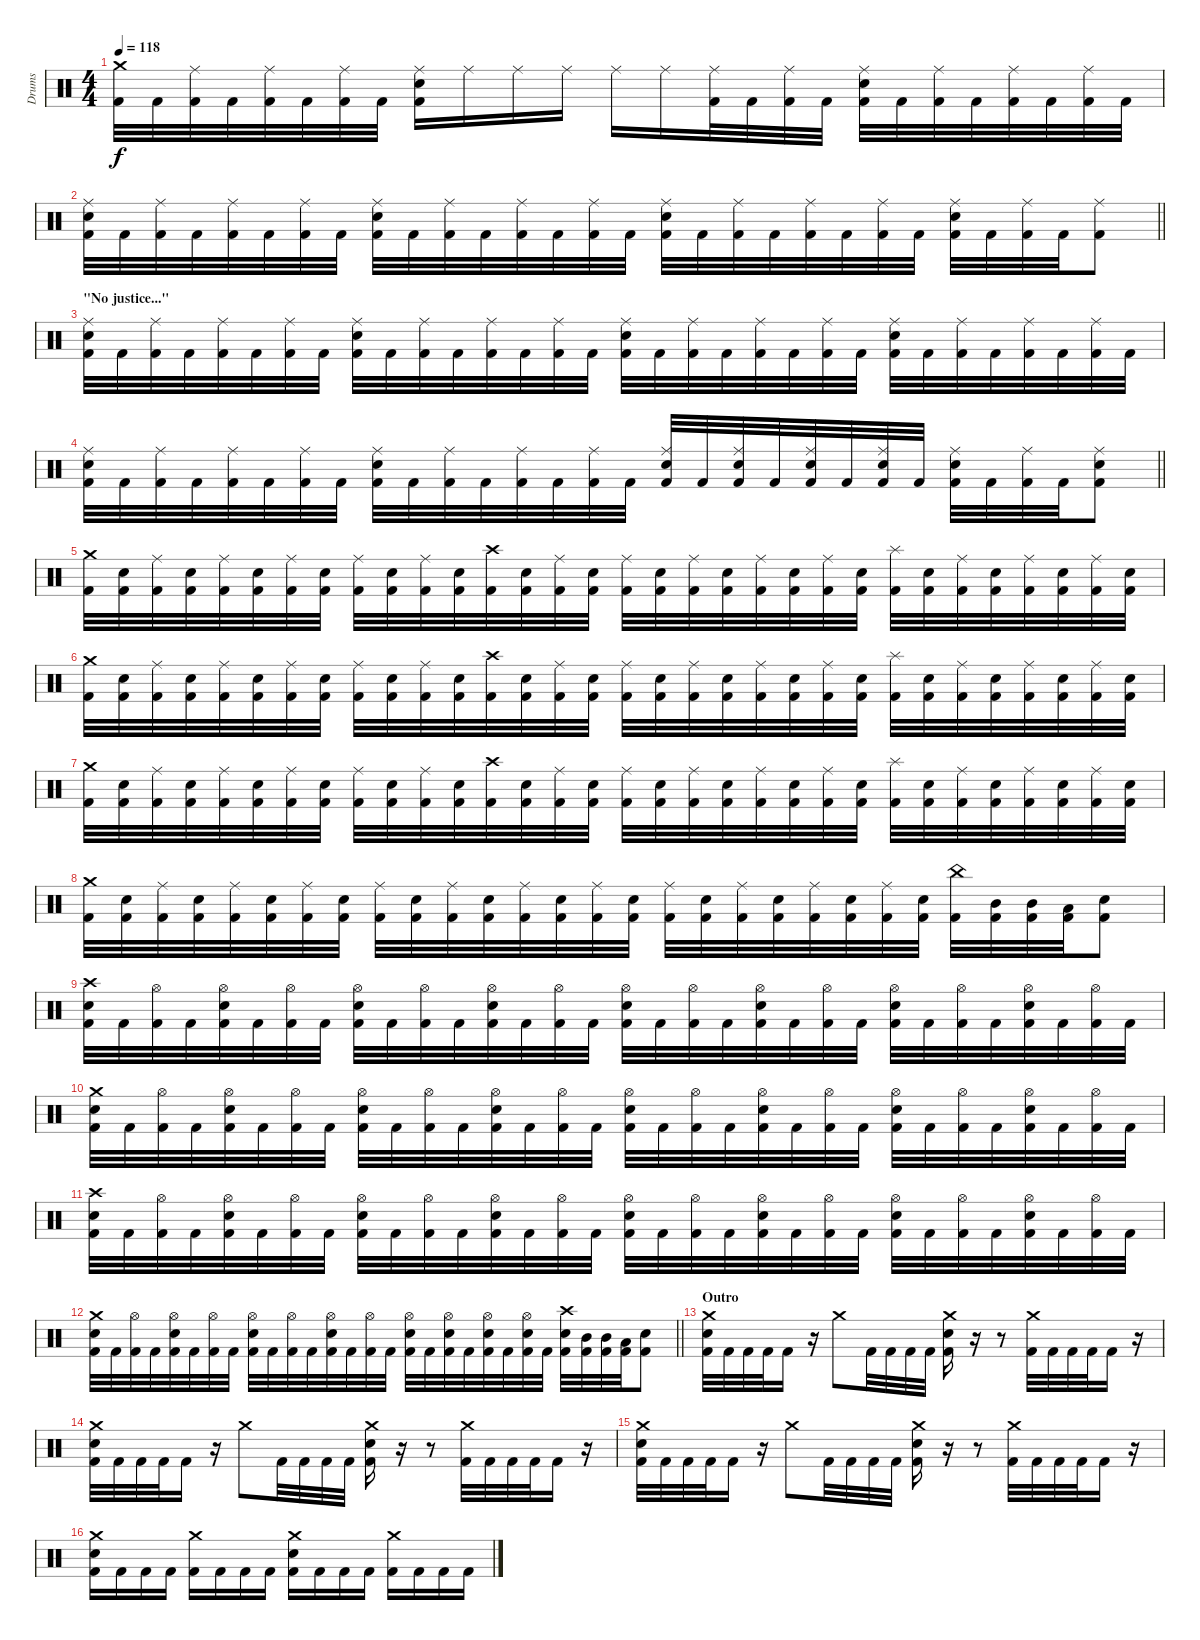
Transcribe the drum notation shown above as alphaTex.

\track ("Drums" "Drums") {instrument percussion}
\staff {score}
\articulation defaults
\ts (4 4)
\tempo 118
\clef neutral
\ks c
("Crash medium (hit)" "Kick (hit) 2").32{dy f} "Kick (hit) 2".32 ("Ride (middle)" "Kick (hit) 2").32 "Kick (hit) 2".32 ("Ride (middle)" "Kick (hit) 2").32 "Kick (hit) 2".32 ("Ride (middle)" "Kick (hit) 2").32 "Kick (hit) 2".32 ("Ride (middle)" "Electric Snare (hit)" "Kick (hit) 2").16 "Ride (middle)".16 "Ride (middle)".16 "Ride (middle)".16 "Ride (middle)".16 "Ride (middle)".16 ("Ride (middle)" "Kick (hit) 2").32 "Kick (hit) 2".32 ("Ride (middle)" "Kick (hit) 2").32 "Kick (hit) 2".32 ("Ride (middle)" "Electric Snare (hit)" "Kick (hit) 2").32 "Kick (hit) 2".32 ("Ride (middle)" "Kick (hit) 2").32 "Kick (hit) 2".32 ("Ride (middle)" "Kick (hit) 2").32 "Kick (hit) 2".32 ("Ride (middle)" "Kick (hit) 2").32 "Kick (hit) 2".32 |
\barLineRight lightlight
("Ride (middle)" "Electric Snare (hit)" "Kick (hit) 2").32 "Kick (hit) 2".32 ("Ride (middle)" "Kick (hit) 2").32 "Kick (hit) 2".32 ("Ride (middle)" "Kick (hit) 2").32 "Kick (hit) 2".32 ("Ride (middle)" "Kick (hit) 2").32 "Kick (hit) 2".32 ("Ride (middle)" "Electric Snare (hit)" "Kick (hit) 2").32 "Kick (hit) 2".32 ("Ride (middle)" "Kick (hit) 2").32 "Kick (hit) 2".32 ("Ride (middle)" "Kick (hit) 2").32 "Kick (hit) 2".32 ("Ride (middle)" "Kick (hit) 2").32 "Kick (hit) 2".32 ("Ride (middle)" "Electric Snare (hit)" "Kick (hit) 2").32 "Kick (hit) 2".32 ("Ride (middle)" "Kick (hit) 2").32 "Kick (hit) 2".32 ("Ride (middle)" "Kick (hit) 2").32 "Kick (hit) 2".32 ("Ride (middle)" "Kick (hit) 2").32 "Kick (hit) 2".32 ("Ride (middle)" "Electric Snare (hit)" "Kick (hit) 2").32 "Kick (hit) 2".32 ("Ride (middle)" "Kick (hit) 2").32 "Kick (hit) 2".32 ("Ride (middle)" "Kick (hit) 2").8 |
\section ("" "\"No justice...\"")
("Ride (middle)" "Electric Snare (hit)" "Kick (hit) 2").32 "Kick (hit) 2".32 ("Ride (middle)" "Kick (hit) 2").32 "Kick (hit) 2".32 ("Ride (middle)" "Kick (hit) 2").32 "Kick (hit) 2".32 ("Ride (middle)" "Kick (hit) 2").32 "Kick (hit) 2".32 ("Ride (middle)" "Electric Snare (hit)" "Kick (hit) 2").32 "Kick (hit) 2".32 ("Ride (middle)" "Kick (hit) 2").32 "Kick (hit) 2".32 ("Ride (middle)" "Kick (hit) 2").32 "Kick (hit) 2".32 ("Ride (middle)" "Kick (hit) 2").32 "Kick (hit) 2".32 ("Ride (middle)" "Electric Snare (hit)" "Kick (hit) 2").32 "Kick (hit) 2".32 ("Ride (middle)" "Kick (hit) 2").32 "Kick (hit) 2".32 ("Ride (middle)" "Kick (hit) 2").32 "Kick (hit) 2".32 ("Ride (middle)" "Kick (hit) 2").32 "Kick (hit) 2".32 ("Ride (middle)" "Electric Snare (hit)" "Kick (hit) 2").32 "Kick (hit) 2".32 ("Ride (middle)" "Kick (hit) 2").32 "Kick (hit) 2".32 ("Ride (middle)" "Kick (hit) 2").32 "Kick (hit) 2".32 ("Ride (middle)" "Kick (hit) 2").32 "Kick (hit) 2".32 |
\barLineRight lightlight
("Ride (middle)" "Electric Snare (hit)" "Kick (hit) 2").32 "Kick (hit) 2".32 ("Ride (middle)" "Kick (hit) 2").32 "Kick (hit) 2".32 ("Ride (middle)" "Kick (hit) 2").32 "Kick (hit) 2".32 ("Ride (middle)" "Kick (hit) 2").32 "Kick (hit) 2".32 ("Ride (middle)" "Electric Snare (hit)" "Kick (hit) 2").32 "Kick (hit) 2".32 ("Ride (middle)" "Kick (hit) 2").32 "Kick (hit) 2".32 ("Ride (middle)" "Kick (hit) 2").32 "Kick (hit) 2".32 ("Ride (middle)" "Kick (hit) 2").32 "Kick (hit) 2".32 ("Ride (middle)" "Electric Snare (hit)" "Kick (hit) 2").32 "Kick (hit) 2".32 ("Ride (middle)" "Electric Snare (hit)" "Kick (hit) 2").32 "Kick (hit) 2".32 ("Ride (middle)" "Electric Snare (hit)" "Kick (hit) 2").32 "Kick (hit) 2".32 ("Ride (middle)" "Electric Snare (hit)" "Kick (hit) 2").32 "Kick (hit) 2".32 ("Ride (middle)" "Electric Snare (hit)" "Kick (hit) 2").32 "Kick (hit) 2".32 ("Ride (middle)" "Kick (hit) 2").32 "Kick (hit) 2".32 ("Ride (middle)" "Electric Snare (hit)" "Kick (hit) 2").8 |
\section ("" "")
("Crash medium (hit)" "Kick (hit) 2").32 ("Electric Snare (hit)" "Kick (hit) 2").32 ("Ride (middle)" "Kick (hit) 2").32 ("Electric Snare (hit)" "Kick (hit) 2").32 ("Ride (middle)" "Kick (hit) 2").32 ("Electric Snare (hit)" "Kick (hit) 2").32 ("Ride (middle)" "Kick (hit) 2").32 ("Electric Snare (hit)" "Kick (hit) 2").32 ("Ride (middle)" "Kick (hit) 2").32 ("Electric Snare (hit)" "Kick (hit) 2").32 ("Ride (middle)" "Kick (hit) 2").32 ("Electric Snare (hit)" "Kick (hit) 2").32 ("Crash high (hit)" "Kick (hit) 2").32 ("Electric Snare (hit)" "Kick (hit) 2").32 ("Ride (middle)" "Kick (hit) 2").32 ("Electric Snare (hit)" "Kick (hit) 2").32 ("Ride (middle)" "Kick (hit) 2").32 ("Electric Snare (hit)" "Kick (hit) 2").32 ("Ride (middle)" "Kick (hit) 2").32 ("Electric Snare (hit)" "Kick (hit) 2").32 ("Ride (middle)" "Kick (hit) 2").32 ("Electric Snare (hit)" "Kick (hit) 2").32 ("Ride (middle)" "Kick (hit) 2").32 ("Electric Snare (hit)" "Kick (hit) 2").32 ("Splash (hit)" "Kick (hit) 2").32 ("Electric Snare (hit)" "Kick (hit) 2").32 ("Ride (middle)" "Kick (hit) 2").32 ("Electric Snare (hit)" "Kick (hit) 2").32 ("Ride (middle)" "Kick (hit) 2").32 ("Electric Snare (hit)" "Kick (hit) 2").32 ("Ride (middle)" "Kick (hit) 2").32 ("Electric Snare (hit)" "Kick (hit) 2").32 |
("Crash medium (hit)" "Kick (hit) 2").32 ("Electric Snare (hit)" "Kick (hit) 2").32 ("Ride (middle)" "Kick (hit) 2").32 ("Electric Snare (hit)" "Kick (hit) 2").32 ("Ride (middle)" "Kick (hit) 2").32 ("Electric Snare (hit)" "Kick (hit) 2").32 ("Ride (middle)" "Kick (hit) 2").32 ("Electric Snare (hit)" "Kick (hit) 2").32 ("Ride (middle)" "Kick (hit) 2").32 ("Electric Snare (hit)" "Kick (hit) 2").32 ("Ride (middle)" "Kick (hit) 2").32 ("Electric Snare (hit)" "Kick (hit) 2").32 ("Crash high (hit)" "Kick (hit) 2").32 ("Electric Snare (hit)" "Kick (hit) 2").32 ("Ride (middle)" "Kick (hit) 2").32 ("Electric Snare (hit)" "Kick (hit) 2").32 ("Ride (middle)" "Kick (hit) 2").32 ("Electric Snare (hit)" "Kick (hit) 2").32 ("Ride (middle)" "Kick (hit) 2").32 ("Electric Snare (hit)" "Kick (hit) 2").32 ("Ride (middle)" "Kick (hit) 2").32 ("Electric Snare (hit)" "Kick (hit) 2").32 ("Ride (middle)" "Kick (hit) 2").32 ("Electric Snare (hit)" "Kick (hit) 2").32 ("Splash (hit)" "Kick (hit) 2").32 ("Electric Snare (hit)" "Kick (hit) 2").32 ("Ride (middle)" "Kick (hit) 2").32 ("Electric Snare (hit)" "Kick (hit) 2").32 ("Ride (middle)" "Kick (hit) 2").32 ("Electric Snare (hit)" "Kick (hit) 2").32 ("Ride (middle)" "Kick (hit) 2").32 ("Electric Snare (hit)" "Kick (hit) 2").32 |
("Crash medium (hit)" "Kick (hit) 2").32 ("Electric Snare (hit)" "Kick (hit) 2").32 ("Ride (middle)" "Kick (hit) 2").32 ("Electric Snare (hit)" "Kick (hit) 2").32 ("Ride (middle)" "Kick (hit) 2").32 ("Electric Snare (hit)" "Kick (hit) 2").32 ("Ride (middle)" "Kick (hit) 2").32 ("Electric Snare (hit)" "Kick (hit) 2").32 ("Ride (middle)" "Kick (hit) 2").32 ("Electric Snare (hit)" "Kick (hit) 2").32 ("Ride (middle)" "Kick (hit) 2").32 ("Electric Snare (hit)" "Kick (hit) 2").32 ("Crash high (hit)" "Kick (hit) 2").32 ("Electric Snare (hit)" "Kick (hit) 2").32 ("Ride (middle)" "Kick (hit) 2").32 ("Electric Snare (hit)" "Kick (hit) 2").32 ("Ride (middle)" "Kick (hit) 2").32 ("Electric Snare (hit)" "Kick (hit) 2").32 ("Ride (middle)" "Kick (hit) 2").32 ("Electric Snare (hit)" "Kick (hit) 2").32 ("Ride (middle)" "Kick (hit) 2").32 ("Electric Snare (hit)" "Kick (hit) 2").32 ("Ride (middle)" "Kick (hit) 2").32 ("Electric Snare (hit)" "Kick (hit) 2").32 ("Splash (hit)" "Kick (hit) 2").32 ("Electric Snare (hit)" "Kick (hit) 2").32 ("Ride (middle)" "Kick (hit) 2").32 ("Electric Snare (hit)" "Kick (hit) 2").32 ("Ride (middle)" "Kick (hit) 2").32 ("Electric Snare (hit)" "Kick (hit) 2").32 ("Ride (middle)" "Kick (hit) 2").32 ("Electric Snare (hit)" "Kick (hit) 2").32 |
("Crash medium (hit)" "Kick (hit) 2").32 ("Electric Snare (hit)" "Kick (hit) 2").32 ("Ride (middle)" "Kick (hit) 2").32 ("Electric Snare (hit)" "Kick (hit) 2").32 ("Ride (middle)" "Kick (hit) 2").32 ("Electric Snare (hit)" "Kick (hit) 2").32 ("Ride (middle)" "Kick (hit) 2").32 ("Electric Snare (hit)" "Kick (hit) 2").32 ("Ride (middle)" "Kick (hit) 2").32 ("Electric Snare (hit)" "Kick (hit) 2").32 ("Ride (middle)" "Kick (hit) 2").32 ("Electric Snare (hit)" "Kick (hit) 2").32 ("Ride (middle)" "Kick (hit) 2").32 ("Electric Snare (hit)" "Kick (hit) 2").32 ("Ride (middle)" "Kick (hit) 2").32 ("Electric Snare (hit)" "Kick (hit) 2").32 ("Ride (middle)" "Kick (hit) 2").32 ("Electric Snare (hit)" "Kick (hit) 2").32 ("Ride (middle)" "Kick (hit) 2").32 ("Electric Snare (hit)" "Kick (hit) 2").32 ("Ride (middle)" "Kick (hit) 2").32 ("Electric Snare (hit)" "Kick (hit) 2").32 ("Ride (middle)" "Kick (hit) 2").32 ("Electric Snare (hit)" "Kick (hit) 2").32 ("China (hit)" "Kick (hit) 2").32 ("Mid Tom (hit)" "Kick (hit) 2").32 ("Mid Tom (hit)" "Kick (hit) 2").32 ("Low Tom (hit)" "Kick (hit) 2").32 ("Electric Snare (hit)" "Kick (hit) 2").8 |
("Crash high (hit)" "Electric Snare (hit)" "Kick (hit) 2").32 "Kick (hit) 2".32 ("Hi-Hat (open)" "Kick (hit) 2").32 "Kick (hit) 2".32 ("Hi-Hat (open)" "Electric Snare (hit)" "Kick (hit) 2").32 "Kick (hit) 2".32 ("Hi-Hat (open)" "Kick (hit) 2").32 "Kick (hit) 2".32 ("Hi-Hat (open)" "Electric Snare (hit)" "Kick (hit) 2").32 "Kick (hit) 2".32 ("Hi-Hat (open)" "Kick (hit) 2").32 "Kick (hit) 2".32 ("Hi-Hat (open)" "Electric Snare (hit)" "Kick (hit) 2").32 "Kick (hit) 2".32 ("Hi-Hat (open)" "Kick (hit) 2").32 "Kick (hit) 2".32 ("Hi-Hat (open)" "Electric Snare (hit)" "Kick (hit) 2").32 "Kick (hit) 2".32 ("Hi-Hat (open)" "Kick (hit) 2").32 "Kick (hit) 2".32 ("Hi-Hat (open)" "Electric Snare (hit)" "Kick (hit) 2").32 "Kick (hit) 2".32 ("Hi-Hat (open)" "Kick (hit) 2").32 "Kick (hit) 2".32 ("Hi-Hat (open)" "Electric Snare (hit)" "Kick (hit) 2").32 "Kick (hit) 2".32 ("Hi-Hat (open)" "Kick (hit) 2").32 "Kick (hit) 2".32 ("Hi-Hat (open)" "Electric Snare (hit)" "Kick (hit) 2").32 "Kick (hit) 2".32 ("Hi-Hat (open)" "Kick (hit) 2").32 "Kick (hit) 2".32 |
("Crash medium (hit)" "Electric Snare (hit)" "Kick (hit) 2").32 "Kick (hit) 2".32 ("Hi-Hat (open)" "Kick (hit) 2").32 "Kick (hit) 2".32 ("Hi-Hat (open)" "Electric Snare (hit)" "Kick (hit) 2").32 "Kick (hit) 2".32 ("Hi-Hat (open)" "Kick (hit) 2").32 "Kick (hit) 2".32 ("Hi-Hat (open)" "Electric Snare (hit)" "Kick (hit) 2").32 "Kick (hit) 2".32 ("Hi-Hat (open)" "Kick (hit) 2").32 "Kick (hit) 2".32 ("Hi-Hat (open)" "Electric Snare (hit)" "Kick (hit) 2").32 "Kick (hit) 2".32 ("Hi-Hat (open)" "Kick (hit) 2").32 "Kick (hit) 2".32 ("Hi-Hat (open)" "Electric Snare (hit)" "Kick (hit) 2").32 "Kick (hit) 2".32 ("Hi-Hat (open)" "Kick (hit) 2").32 "Kick (hit) 2".32 ("Hi-Hat (open)" "Electric Snare (hit)" "Kick (hit) 2").32 "Kick (hit) 2".32 ("Hi-Hat (open)" "Kick (hit) 2").32 "Kick (hit) 2".32 ("Hi-Hat (open)" "Electric Snare (hit)" "Kick (hit) 2").32 "Kick (hit) 2".32 ("Hi-Hat (open)" "Kick (hit) 2").32 "Kick (hit) 2".32 ("Hi-Hat (open)" "Electric Snare (hit)" "Kick (hit) 2").32 "Kick (hit) 2".32 ("Hi-Hat (open)" "Kick (hit) 2").32 "Kick (hit) 2".32 |
("Crash high (hit)" "Electric Snare (hit)" "Kick (hit) 2").32 "Kick (hit) 2".32 ("Hi-Hat (open)" "Kick (hit) 2").32 "Kick (hit) 2".32 ("Hi-Hat (open)" "Electric Snare (hit)" "Kick (hit) 2").32 "Kick (hit) 2".32 ("Hi-Hat (open)" "Kick (hit) 2").32 "Kick (hit) 2".32 ("Hi-Hat (open)" "Electric Snare (hit)" "Kick (hit) 2").32 "Kick (hit) 2".32 ("Hi-Hat (open)" "Kick (hit) 2").32 "Kick (hit) 2".32 ("Hi-Hat (open)" "Electric Snare (hit)" "Kick (hit) 2").32 "Kick (hit) 2".32 ("Hi-Hat (open)" "Kick (hit) 2").32 "Kick (hit) 2".32 ("Hi-Hat (open)" "Electric Snare (hit)" "Kick (hit) 2").32 "Kick (hit) 2".32 ("Hi-Hat (open)" "Kick (hit) 2").32 "Kick (hit) 2".32 ("Hi-Hat (open)" "Electric Snare (hit)" "Kick (hit) 2").32 "Kick (hit) 2".32 ("Hi-Hat (open)" "Kick (hit) 2").32 "Kick (hit) 2".32 ("Hi-Hat (open)" "Electric Snare (hit)" "Kick (hit) 2").32 "Kick (hit) 2".32 ("Hi-Hat (open)" "Kick (hit) 2").32 "Kick (hit) 2".32 ("Hi-Hat (open)" "Electric Snare (hit)" "Kick (hit) 2").32 "Kick (hit) 2".32 ("Hi-Hat (open)" "Kick (hit) 2").32 "Kick (hit) 2".32 |
\barLineRight lightlight
("Crash medium (hit)" "Electric Snare (hit)" "Kick (hit) 2").32 "Kick (hit) 2".32 ("Hi-Hat (open)" "Kick (hit) 2").32 "Kick (hit) 2".32 ("Hi-Hat (open)" "Electric Snare (hit)" "Kick (hit) 2").32 "Kick (hit) 2".32 ("Hi-Hat (open)" "Kick (hit) 2").32 "Kick (hit) 2".32 ("Hi-Hat (open)" "Electric Snare (hit)" "Kick (hit) 2").32 "Kick (hit) 2".32 ("Hi-Hat (open)" "Kick (hit) 2").32 "Kick (hit) 2".32 ("Hi-Hat (open)" "Electric Snare (hit)" "Kick (hit) 2").32 "Kick (hit) 2".32 ("Hi-Hat (open)" "Kick (hit) 2").32 "Kick (hit) 2".32 ("Hi-Hat (open)" "Electric Snare (hit)" "Kick (hit) 2").32 "Kick (hit) 2".32 ("Hi-Hat (open)" "Electric Snare (hit)" "Kick (hit) 2").32 "Kick (hit) 2".32 ("Hi-Hat (open)" "Electric Snare (hit)" "Kick (hit) 2").32 "Kick (hit) 2".32 ("Hi-Hat (open)" "Electric Snare (hit)" "Kick (hit) 2").32 "Kick (hit) 2".32 ("Crash high (hit)" "Electric Snare (hit)" "Kick (hit) 2").32 ("Mid Tom (hit)" "Kick (hit) 2").32 ("Mid Tom (hit)" "Kick (hit) 2").32 ("Low Tom (hit)" "Kick (hit) 2").32 ("Electric Snare (hit)" "Kick (hit) 2").8 |
\section ("" "Outro")
("Crash medium (hit)" "Electric Snare (hit)" "Kick (hit) 2").32 "Kick (hit) 2".32 "Kick (hit) 2".32 "Kick (hit) 2".32 "Kick (hit) 2".16 r.16 "Crash medium (hit)".8 "Kick (hit) 2".32 "Kick (hit) 2".32 "Kick (hit) 2".32 "Kick (hit) 2".32 ("Crash medium (hit)" "Electric Snare (hit)" "Kick (hit) 2").16 r.16 r.8 ("Crash medium (hit)" "Kick (hit) 2").32 "Kick (hit) 2".32 "Kick (hit) 2".32 "Kick (hit) 2".32 "Kick (hit) 2".16 r.16 |
("Crash medium (hit)" "Electric Snare (hit)" "Kick (hit) 2").32 "Kick (hit) 2".32 "Kick (hit) 2".32 "Kick (hit) 2".32 "Kick (hit) 2".16 r.16 "Crash medium (hit)".8 "Kick (hit) 2".32 "Kick (hit) 2".32 "Kick (hit) 2".32 "Kick (hit) 2".32 ("Crash medium (hit)" "Electric Snare (hit)" "Kick (hit) 2").16 r.16 r.8 ("Crash medium (hit)" "Kick (hit) 2").32 "Kick (hit) 2".32 "Kick (hit) 2".32 "Kick (hit) 2".32 "Kick (hit) 2".16 r.16 |
("Crash medium (hit)" "Electric Snare (hit)" "Kick (hit) 2").32 "Kick (hit) 2".32 "Kick (hit) 2".32 "Kick (hit) 2".32 "Kick (hit) 2".16 r.16 "Crash medium (hit)".8 "Kick (hit) 2".32 "Kick (hit) 2".32 "Kick (hit) 2".32 "Kick (hit) 2".32 ("Crash medium (hit)" "Electric Snare (hit)" "Kick (hit) 2").16 r.16 r.8 ("Crash medium (hit)" "Kick (hit) 2").32 "Kick (hit) 2".32 "Kick (hit) 2".32 "Kick (hit) 2".32 "Kick (hit) 2".16 r.16 |
("Crash medium (hit)" "Electric Snare (hit)" "Kick (hit) 2").16 "Kick (hit) 2".16 "Kick (hit) 2".16 "Kick (hit) 2".16 ("Crash medium (hit)" "Kick (hit) 2").16 "Kick (hit) 2".16 "Kick (hit) 2".16 "Kick (hit) 2".16 ("Crash medium (hit)" "Electric Snare (hit)" "Kick (hit) 2").16 "Kick (hit) 2".16 "Kick (hit) 2".16 "Kick (hit) 2".16 ("Crash medium (hit)" "Kick (hit) 2").16 "Kick (hit) 2".16 "Kick (hit) 2".16 "Kick (hit) 2".16
